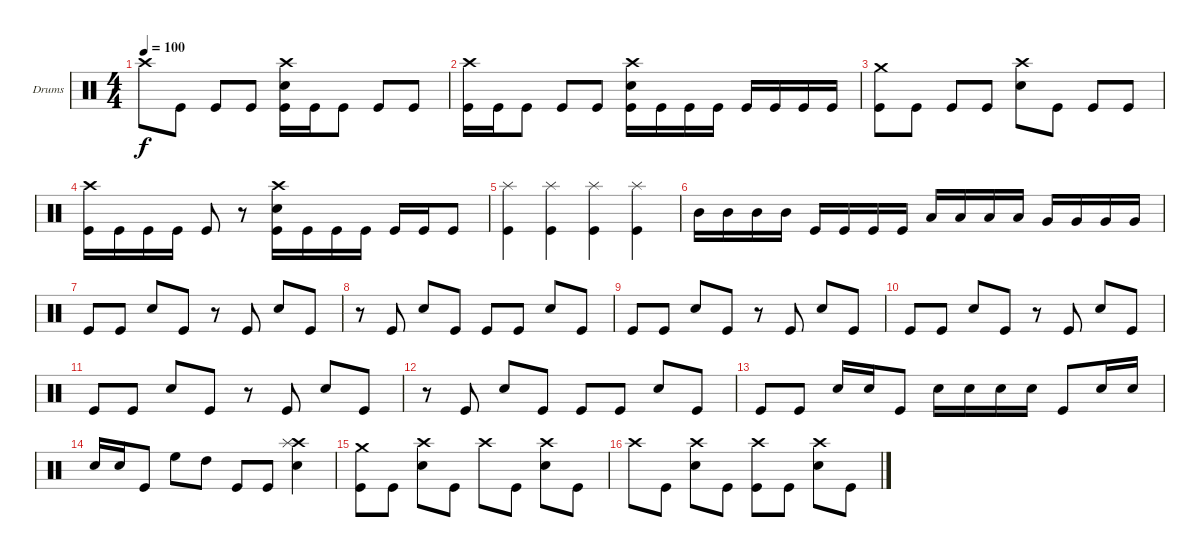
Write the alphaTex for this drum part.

\bracketExtendMode groupsimilarinstruments
\firstSystemTrackNameOrientation horizontal
\otherSystemsTrackNameOrientation horizontal
\track ("Drumkit" "Drums") {instrument percussion}
\staff {score}
\articulation defaults
\ts (4 4)
\tempo 100
\clef neutral
\ks c "Crash high (hit)".8{dy f} "Kick (hit)".8 "Kick (hit)".8 "Kick (hit)".8
("Crash high (hit)" "Snare (hit) 2" "Kick (hit)").16 "Kick (hit)".16 "Kick (hit)".8 "Kick (hit)".8 "Kick (hit)".8 |
("Crash high (hit)" "Kick (hit)").16 "Kick (hit)".16 "Kick (hit)".8 "Kick (hit)".8 "Kick (hit)".8 ("Crash high (hit)" "Snare (hit) 2" "Kick (hit)").16 "Kick (hit)".16 "Kick (hit)".16 "Kick (hit)".16 "Kick (hit)".16 "Kick (hit)".16 "Kick (hit)".16 "Kick (hit)".16 |
("Crash medium (hit)" "Kick (hit)").8 "Kick (hit)".8 "Kick (hit)".8 "Kick (hit)".8 ("Crash high (hit)" "Snare (hit) 2").8 "Kick (hit)".8 "Kick (hit)".8 "Kick (hit)".8 |
("Crash high (hit)" "Kick (hit)").16 "Kick (hit)".16 "Kick (hit)".16 "Kick (hit)".16 "Kick (hit)".8 r.8 ("Crash high (hit)" "Snare (hit) 2" "Kick (hit)").16 "Kick (hit)".16 "Kick (hit)".16 "Kick (hit)".16 "Kick (hit)".16 "Kick (hit)".16 "Kick (hit)".8 |
("Splash (hit)" "Kick (hit)").4 ("Splash (hit)" "Kick (hit)").4 ("Splash (hit)" "Kick (hit)").4 ("Splash (hit)" "Kick (hit)").4 |
"Mid Tom (hit)".16 "Mid Tom (hit)".16 "Mid Tom (hit)".16 "Mid Tom (hit)".16 "Kick (hit)".16 "Kick (hit)".16 "Kick (hit)".16 "Kick (hit)".16 "Low Tom (hit)".16 "Low Tom (hit)".16 "Low Tom (hit)".16 "Low Tom (hit)".16 "Very Low Tom (hit)".16 "Very Low Tom (hit)".16 "Very Low Tom (hit)".16 "Very Low Tom (hit)".16 |
"Kick (hit)".8 "Kick (hit)".8 "Snare (hit) 2".8 "Kick (hit)".8 r.8 "Kick (hit)".8 "Snare (hit) 2".8 "Kick (hit)".8 |
r.8 "Kick (hit)".8 "Snare (hit) 2".8 "Kick (hit)".8 "Kick (hit)".8 "Kick (hit)".8 "Snare (hit) 2".8 "Kick (hit)".8 |
"Kick (hit)".8 "Kick (hit)".8 "Snare (hit) 2".8 "Kick (hit)".8 r.8 "Kick (hit)".8 "Snare (hit) 2".8 "Kick (hit)".8 |
"Kick (hit)".8 "Kick (hit)".8 "Snare (hit) 2".8 "Kick (hit)".8 r.8 "Kick (hit)".8 "Snare (hit) 2".8 "Kick (hit)".8 |
"Kick (hit)".8 "Kick (hit)".8 "Snare (hit) 2".8 "Kick (hit)".8 r.8 "Kick (hit)".8 "Snare (hit) 2".8 "Kick (hit)".8 |
r.8 "Kick (hit)".8 "Snare (hit) 2".8 "Kick (hit)".8 "Kick (hit)".8 "Kick (hit)".8 "Snare (hit) 2".8 "Kick (hit)".8 |
"Kick (hit)".8 "Kick (hit)".8 "Snare (hit) 2".16 "Snare (hit) 2".16 "Kick (hit)".8 "Snare (hit) 2".16 "Snare (hit) 2".16 "Snare (hit) 2".16 "Snare (hit) 2".16 "Kick (hit)".8 "Snare (hit) 2".16 "Snare (hit) 2".16 |
"Snare (hit) 2".16 "Snare (hit) 2".16 "Kick (hit)".8 "High Floor Tom (hit)".8 "High Tom (hit)".8 "Kick (hit)".8 "Kick (hit)".8 ("Crash high (hit)" "Splash (hit)" "Snare (hit) 2").4 |
("Crash medium (hit)" "Kick (hit)").8 "Kick (hit)".8 ("Crash high (hit)" "Snare (hit) 2").8 "Kick (hit)".8 "Crash high (hit)".8 "Kick (hit)".8 ("Crash high (hit)" "Snare (hit) 2").8 "Kick (hit)".8 |
"Crash high (hit)".8 "Kick (hit)".8 ("Crash high (hit)" "Snare (hit) 2").8 "Kick (hit)".8 ("Crash high (hit)" "Kick (hit)").8 "Kick (hit)".8 ("Crash high (hit)" "Snare (hit) 2").8 "Kick (hit)".8
